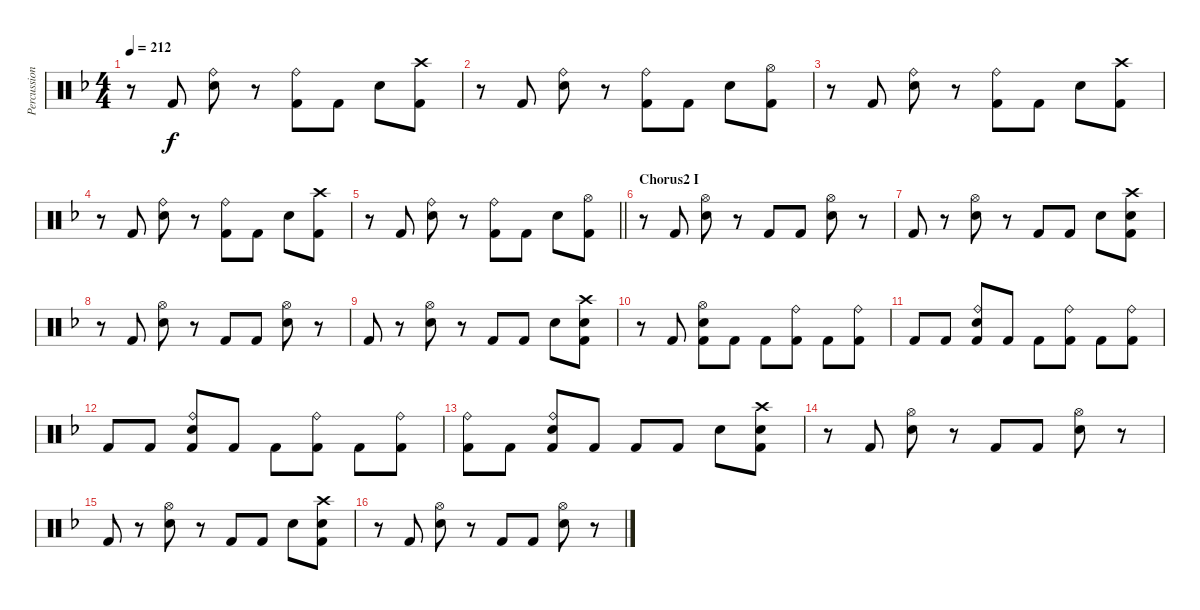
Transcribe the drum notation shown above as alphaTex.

\track ("Percussion" "Percussion") {instrument percussion}
\staff {score}
\articulation defaults
\ts (4 4)
\tempo 212
\clef neutral
\ks dminor
r.8{dy f} "Kick (hit) 2".8 ("Ride (bell)" "Electric Snare (hit)").8 r.8 ("Ride (bell)" "Kick (hit) 2").8 "Kick (hit) 2".8 "Electric Snare (hit)".8 ("Crash high (hit)" "Kick (hit) 2").8 |
r.8 "Kick (hit) 2".8 ("Ride (bell)" "Electric Snare (hit)").8 r.8 ("Ride (bell)" "Kick (hit) 2").8 "Kick (hit) 2".8 "Electric Snare (hit)".8 ("Hi-Hat (open)" "Kick (hit) 2").8 |
r.8 "Kick (hit) 2".8 ("Ride (bell)" "Electric Snare (hit)").8 r.8 ("Ride (bell)" "Kick (hit) 2").8 "Kick (hit) 2".8 "Electric Snare (hit)".8 ("Crash high (hit)" "Kick (hit) 2").8 |
r.8 "Kick (hit) 2".8 ("Ride (bell)" "Electric Snare (hit)").8 r.8 ("Ride (bell)" "Kick (hit) 2").8 "Kick (hit) 2".8 "Electric Snare (hit)".8 ("Crash high (hit)" "Kick (hit) 2").8 |
\barLineRight lightlight
r.8 "Kick (hit) 2".8 ("Ride (bell)" "Electric Snare (hit)").8 r.8 ("Ride (bell)" "Kick (hit) 2").8 "Kick (hit) 2".8 "Electric Snare (hit)".8 ("Hi-Hat (open)" "Kick (hit) 2").8 |
\section ("" "Chorus2 I")
r.8 "Kick (hit) 2".8 ("Hi-Hat (open)" "Electric Snare (hit)").8 r.8 "Kick (hit) 2".8 "Kick (hit) 2".8 ("Hi-Hat (open)" "Electric Snare (hit)").8 r.8 |
"Kick (hit) 2".8 r.8 ("Hi-Hat (open)" "Electric Snare (hit)").8 r.8 "Kick (hit) 2".8 "Kick (hit) 2".8 "Electric Snare (hit)".8 ("Crash high (hit)" "Electric Snare (hit)" "Kick (hit) 2").8 |
r.8 "Kick (hit) 2".8 ("Hi-Hat (open)" "Electric Snare (hit)").8 r.8 "Kick (hit) 2".8 "Kick (hit) 2".8 ("Hi-Hat (open)" "Electric Snare (hit)").8 r.8 |
"Kick (hit) 2".8 r.8 ("Hi-Hat (open)" "Electric Snare (hit)").8 r.8 "Kick (hit) 2".8 "Kick (hit) 2".8 "Electric Snare (hit)".8 ("Crash high (hit)" "Electric Snare (hit)" "Kick (hit) 2").8 |
r.8 "Kick (hit) 2".8 ("Hi-Hat (open)" "Electric Snare (hit)" "Kick (hit) 2").8 "Kick (hit) 2".8 "Kick (hit) 2".8 ("Ride (bell)" "Kick (hit) 2").8 "Kick (hit) 2".8 ("Ride (bell)" "Kick (hit) 2").8 |
"Kick (hit) 2".8 "Kick (hit) 2".8 ("Ride (bell)" "Electric Snare (hit)" "Kick (hit) 2").8 "Kick (hit) 2".8 "Kick (hit) 2".8 ("Ride (bell)" "Kick (hit) 2").8 "Kick (hit) 2".8 ("Ride (bell)" "Kick (hit) 2").8 |
"Kick (hit) 2".8 "Kick (hit) 2".8 ("Ride (bell)" "Electric Snare (hit)" "Kick (hit) 2").8 "Kick (hit) 2".8 "Kick (hit) 2".8 ("Ride (bell)" "Kick (hit) 2").8 "Kick (hit) 2".8 ("Ride (bell)" "Kick (hit) 2").8 |
("Ride (bell)" "Kick (hit) 2").8 "Kick (hit) 2".8 ("Ride (bell)" "Electric Snare (hit)" "Kick (hit) 2").8 "Kick (hit) 2".8 "Kick (hit) 2".8 "Kick (hit) 2".8 "Electric Snare (hit)".8 ("Crash high (hit)" "Electric Snare (hit)" "Kick (hit) 2").8 |
r.8 "Kick (hit) 2".8 ("Hi-Hat (open)" "Electric Snare (hit)").8 r.8 "Kick (hit) 2".8 "Kick (hit) 2".8 ("Hi-Hat (open)" "Electric Snare (hit)").8 r.8 |
"Kick (hit) 2".8 r.8 ("Hi-Hat (open)" "Electric Snare (hit)").8 r.8 "Kick (hit) 2".8 "Kick (hit) 2".8 "Electric Snare (hit)".8 ("Crash high (hit)" "Electric Snare (hit)" "Kick (hit) 2").8 |
r.8 "Kick (hit) 2".8 ("Hi-Hat (open)" "Electric Snare (hit)").8 r.8 "Kick (hit) 2".8 "Kick (hit) 2".8 ("Hi-Hat (open)" "Electric Snare (hit)").8 r.8
